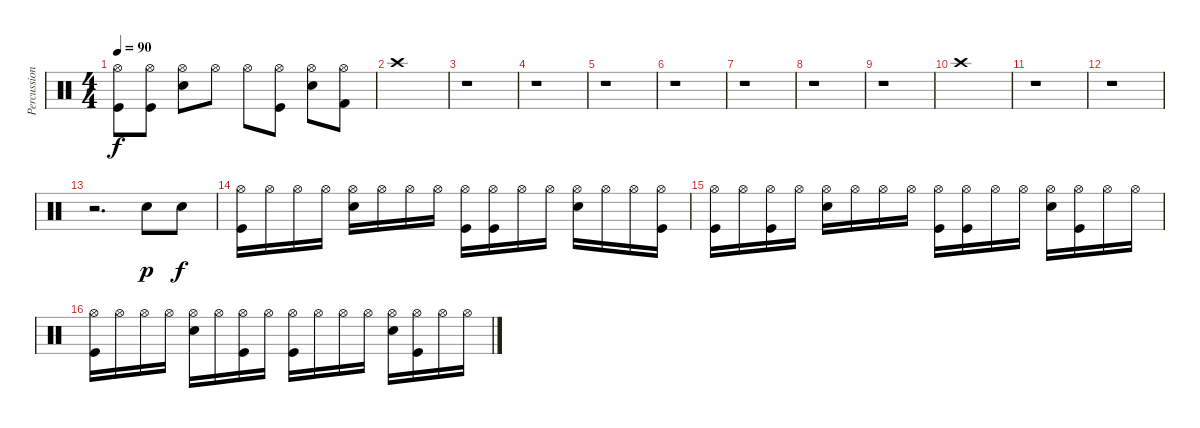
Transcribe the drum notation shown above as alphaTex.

\track ("Percussion" "Percussion") {instrument percussion}
\staff {score}
\articulation defaults
\ts (4 4)
\tempo 90
\clef neutral
\ks c
("Hi-Hat (open)" "Kick (hit)").8{dy f} ("Hi-Hat (open)" "Kick (hit)").8 ("Hi-Hat (open)" "Electric Snare (hit)").8 "Hi-Hat (open)".8 "Hi-Hat (open)".8 ("Hi-Hat (open)" "Kick (hit)").8 ("Hi-Hat (open)" "Electric Snare (hit)").8 ("Hi-Hat (open)" "Kick (hit) 2").8 |
"Crash high (hit)".1 |
r.1 |
r.1 |
r.1 |
r.1 |
r.1 |
r.1 |
r.1 |
"Crash high (hit)".1 |
r.1 |
r.1 |
r.2{d} "Electric Snare (hit)".8{dy p} "Electric Snare (hit)".8{dy f} |
("Hi-Hat (open)" "Kick (hit)").16 "Hi-Hat (open)".16 "Hi-Hat (open)".16 "Hi-Hat (open)".16 ("Hi-Hat (open)" "Electric Snare (hit)").16 "Hi-Hat (open)".16 "Hi-Hat (open)".16 "Hi-Hat (open)".16 ("Hi-Hat (open)" "Kick (hit)").16 ("Hi-Hat (open)" "Kick (hit)").16 "Hi-Hat (open)".16 "Hi-Hat (open)".16 ("Hi-Hat (open)" "Electric Snare (hit)").16 "Hi-Hat (open)".16 "Hi-Hat (open)".16 ("Hi-Hat (open)" "Kick (hit)").16 |
("Hi-Hat (open)" "Kick (hit)").16 "Hi-Hat (open)".16 ("Hi-Hat (open)" "Kick (hit)").16 "Hi-Hat (open)".16 ("Hi-Hat (open)" "Electric Snare (hit)").16 "Hi-Hat (open)".16 "Hi-Hat (open)".16 "Hi-Hat (open)".16 ("Hi-Hat (open)" "Kick (hit)").16 ("Hi-Hat (open)" "Kick (hit)").16 "Hi-Hat (open)".16 "Hi-Hat (open)".16 ("Hi-Hat (open)" "Electric Snare (hit)").16 ("Hi-Hat (open)" "Kick (hit)").16 "Hi-Hat (open)".16 "Hi-Hat (open)".16 |
("Hi-Hat (open)" "Kick (hit)").16 "Hi-Hat (open)".16 "Hi-Hat (open)".16 "Hi-Hat (open)".16 ("Hi-Hat (open)" "Electric Snare (hit)").16 "Hi-Hat (open)".16 ("Hi-Hat (open)" "Kick (hit)").16 "Hi-Hat (open)".16 ("Hi-Hat (open)" "Kick (hit)").16 "Hi-Hat (open)".16 "Hi-Hat (open)".16 "Hi-Hat (open)".16 ("Hi-Hat (open)" "Electric Snare (hit)").16 ("Hi-Hat (open)" "Kick (hit)").16 "Hi-Hat (open)".16 "Hi-Hat (open)".16
